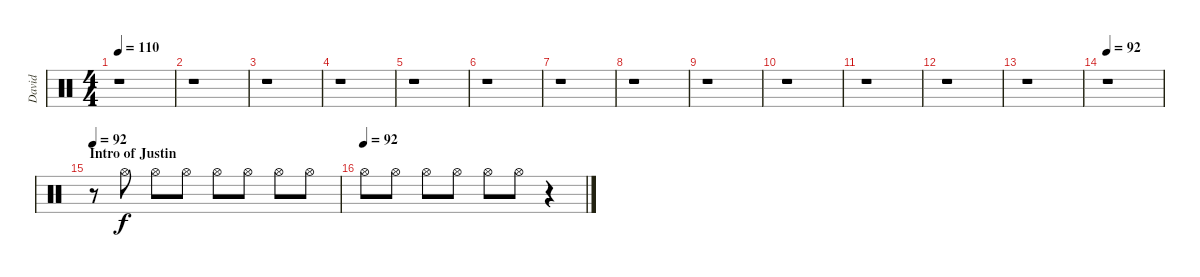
\track ("David" "David") {instrument percussion}
\staff {score}
\articulation defaults
\ts (4 4)
\tempo 110
\clef neutral
\ks c
r.1{dy f} |
r.1 |
r.1 |
r.1 |
r.1 |
r.1 |
r.1 |
r.1 |
r.1 |
r.1 |
r.1 |
r.1 |
r.1 |
\tempo 92
r.1 |
\section ("" "Intro of Justin")
\tempo 92
r.8 "Hi-Hat (open)".8 "Hi-Hat (open)".8 "Hi-Hat (open)".8 "Hi-Hat (open)".8 "Hi-Hat (open)".8 "Hi-Hat (open)".8 "Hi-Hat (open)".8 |
\tempo (92)
"Hi-Hat (open)".8 "Hi-Hat (open)".8 "Hi-Hat (open)".8 "Hi-Hat (open)".8 "Hi-Hat (open)".8 "Hi-Hat (open)".8 r.4
